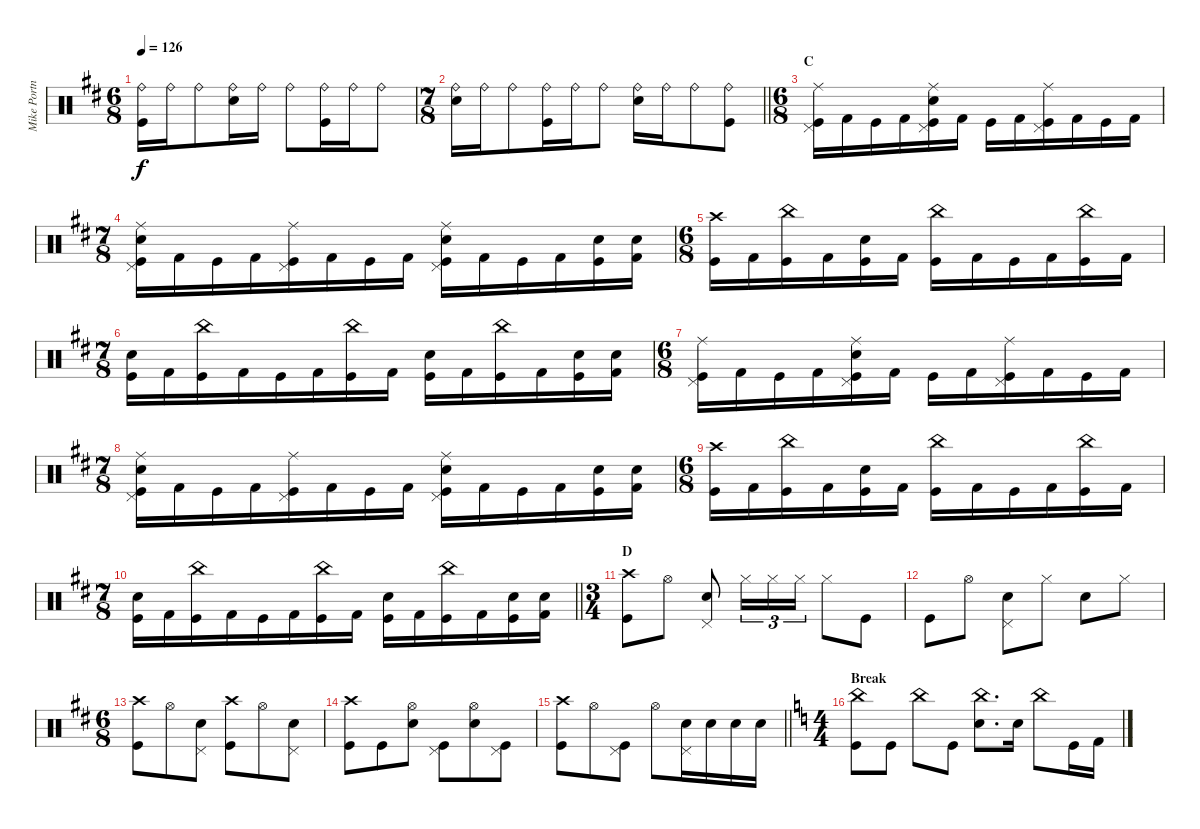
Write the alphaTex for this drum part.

\track ("Mike Portnoy" "Mike Portn") {instrument percussion}
\staff {score}
\articulation defaults
\ts (6 8)
\tempo 126
\clef neutral
\ks bminor
("Ride (bell)" "Kick (hit)").16{dy f} "Ride (bell)".16 "Ride (bell)".8 ("Ride (bell)" "Snare (hit) 2").16 "Ride (bell)".16 "Ride (bell)".8 ("Ride (bell)" "Kick (hit)").16 "Ride (bell)".16 "Ride (bell)".8 |
\ts (7 8)
\barLineRight lightlight
("Ride (bell)" "Snare (hit) 2").16 "Ride (bell)".16 "Ride (bell)".8 ("Ride (bell)" "Kick (hit)").16 "Ride (bell)".16 "Ride (bell)".8 ("Ride (bell)" "Snare (hit) 2").16 "Ride (bell)".16 "Ride (bell)".8 ("Ride (bell)" "Kick (hit)").8 |
\ts (6 8)
\section ("" "C")
("Pedal Hi-Hat (hit)" "Ride (middle)" "Kick (hit)").16 "Kick (hit) 2".16 "Kick (hit)".16 "Kick (hit) 2".16 ("Pedal Hi-Hat (hit)" "Ride (middle)" "Snare (hit) 2" "Kick (hit)").16 "Kick (hit) 2".16 "Kick (hit)".16 "Kick (hit) 2".16 ("Pedal Hi-Hat (hit)" "Ride (middle)" "Kick (hit)").16 "Kick (hit) 2".16 "Kick (hit)".16 "Kick (hit) 2".16 |
\ts (7 8)
("Pedal Hi-Hat (hit)" "Ride (middle)" "Snare (hit) 2" "Kick (hit)").16 "Kick (hit) 2".16 "Kick (hit)".16 "Kick (hit) 2".16 ("Pedal Hi-Hat (hit)" "Ride (middle)" "Kick (hit)").16 "Kick (hit) 2".16 "Kick (hit)".16 "Kick (hit) 2".16 ("Pedal Hi-Hat (hit)" "Ride (middle)" "Snare (hit) 2" "Kick (hit)").16 "Kick (hit) 2".16 "Kick (hit)".16 "Kick (hit) 2".16 ("Snare (hit) 2" "Kick (hit)").16 ("Snare (hit) 2" "Kick (hit) 2").16 |
\ts (6 8)
("Kick (hit)" "Crash high (hit)").16 "Kick (hit) 2".16 ("Kick (hit)" "China (hit)").16 "Kick (hit) 2".16 ("Kick (hit)" "Snare (hit) 2").16 "Kick (hit) 2".16 ("Kick (hit)" "China (hit)").16 "Kick (hit) 2".16 "Kick (hit)".16 "Kick (hit) 2".16 ("Kick (hit)" "China (hit)").16 "Kick (hit) 2".16 |
\ts (7 8)
("Snare (hit) 2" "Kick (hit)").16 "Kick (hit) 2".16 ("China (hit)" "Kick (hit)").16 "Kick (hit) 2".16 "Kick (hit)".16 "Kick (hit) 2".16 ("China (hit)" "Kick (hit)").16 "Kick (hit) 2".16 ("Snare (hit) 2" "Kick (hit)").16 "Kick (hit) 2".16 ("China (hit)" "Kick (hit)").16 "Kick (hit) 2".16 ("Snare (hit) 2" "Kick (hit)").16 ("Snare (hit) 2" "Kick (hit) 2").16 |
\ts (6 8)
("Pedal Hi-Hat (hit)" "Ride (middle)" "Kick (hit)").16 "Kick (hit) 2".16 "Kick (hit)".16 "Kick (hit) 2".16 ("Pedal Hi-Hat (hit)" "Ride (middle)" "Snare (hit) 2" "Kick (hit)").16 "Kick (hit) 2".16 "Kick (hit)".16 "Kick (hit) 2".16 ("Pedal Hi-Hat (hit)" "Ride (middle)" "Kick (hit)").16 "Kick (hit) 2".16 "Kick (hit)".16 "Kick (hit) 2".16 |
\ts (7 8)
("Pedal Hi-Hat (hit)" "Ride (middle)" "Snare (hit) 2" "Kick (hit)").16 "Kick (hit) 2".16 "Kick (hit)".16 "Kick (hit) 2".16 ("Pedal Hi-Hat (hit)" "Ride (middle)" "Kick (hit)").16 "Kick (hit) 2".16 "Kick (hit)".16 "Kick (hit) 2".16 ("Pedal Hi-Hat (hit)" "Ride (middle)" "Snare (hit) 2" "Kick (hit)").16 "Kick (hit) 2".16 "Kick (hit)".16 "Kick (hit) 2".16 ("Snare (hit) 2" "Kick (hit)").16 ("Snare (hit) 2" "Kick (hit) 2").16 |
\ts (6 8)
("Kick (hit)" "Crash high (hit)").16 "Kick (hit) 2".16 ("Kick (hit)" "China (hit)").16 "Kick (hit) 2".16 ("Kick (hit)" "Snare (hit) 2").16 "Kick (hit) 2".16 ("Kick (hit)" "China (hit)").16 "Kick (hit) 2".16 "Kick (hit)".16 "Kick (hit) 2".16 ("Kick (hit)" "China (hit)").16 "Kick (hit) 2".16 |
\ts (7 8)
\barLineRight lightlight
("Snare (hit) 2" "Kick (hit)").16 "Kick (hit) 2".16 ("China (hit)" "Kick (hit)").16 "Kick (hit) 2".16 "Kick (hit)".16 "Kick (hit) 2".16 ("China (hit)" "Kick (hit)").16 "Kick (hit) 2".16 ("Snare (hit) 2" "Kick (hit)").16 "Kick (hit) 2".16 ("China (hit)" "Kick (hit)").16 "Kick (hit) 2".16 ("Snare (hit) 2" "Kick (hit)").16 ("Snare (hit) 2" "Kick (hit) 2").16 |
\ts (3 4)
\section ("" "D")
("Crash high (hit)" "Kick (hit)").8 "Hi-Hat (open)".8 ("Snare (hit) 2" "Pedal Hi-Hat (hit)").8 "Hi-Hat (closed)".16{tu (3 2)} "Hi-Hat (closed)".16{tu (3 2)} "Hi-Hat (closed)".16{tu (3 2)} "Hi-Hat (closed)".8 "Kick (hit)".8 |
"Kick (hit)".8 "Hi-Hat (open)".8 ("Snare (hit) 2" "Pedal Hi-Hat (hit)").8 "Hi-Hat (closed)".8 "Snare (hit) 2".8 "Hi-Hat (closed)".8 |
\ts (6 8)
("Crash high (hit)" "Kick (hit)").8 "Hi-Hat (open)".8 ("Snare (hit) 2" "Pedal Hi-Hat (hit)").8 ("Crash high (hit)" "Kick (hit)").8 "Hi-Hat (open)".8 ("Snare (hit) 2" "Pedal Hi-Hat (hit)").8 |
("Kick (hit)" "Crash high (hit)").8 "Kick (hit)".8 ("Hi-Hat (open)" "Snare (hit) 2").8 ("Kick (hit)" "Pedal Hi-Hat (hit)").8 ("Electric Snare (hit)" "Hi-Hat (open)").8 ("Kick (hit)" "Pedal Hi-Hat (hit)").8 |
\barLineRight lightlight
("Kick (hit)" "Crash high (hit)").8 "Hi-Hat (open)".8 ("Kick (hit)" "Pedal Hi-Hat (hit)").8 "Hi-Hat (open)".8 ("Snare (hit) 2" "Pedal Hi-Hat (hit)").16 "Snare (hit) 2".16 "Snare (hit) 2".16 "Snare (hit) 2".16 |
\ts (4 4)
\section ("" "Break")
\ks aminor
("China (hit)" "Kick (hit)").8 "Kick (hit)".8 "China (hit)".8 "Kick (hit)".8 ("Snare (hit) 2" "China (hit)").8{d} "Snare (hit) 2".16 "China (hit)".8 "Kick (hit)".16 "Kick (hit) 2".16
